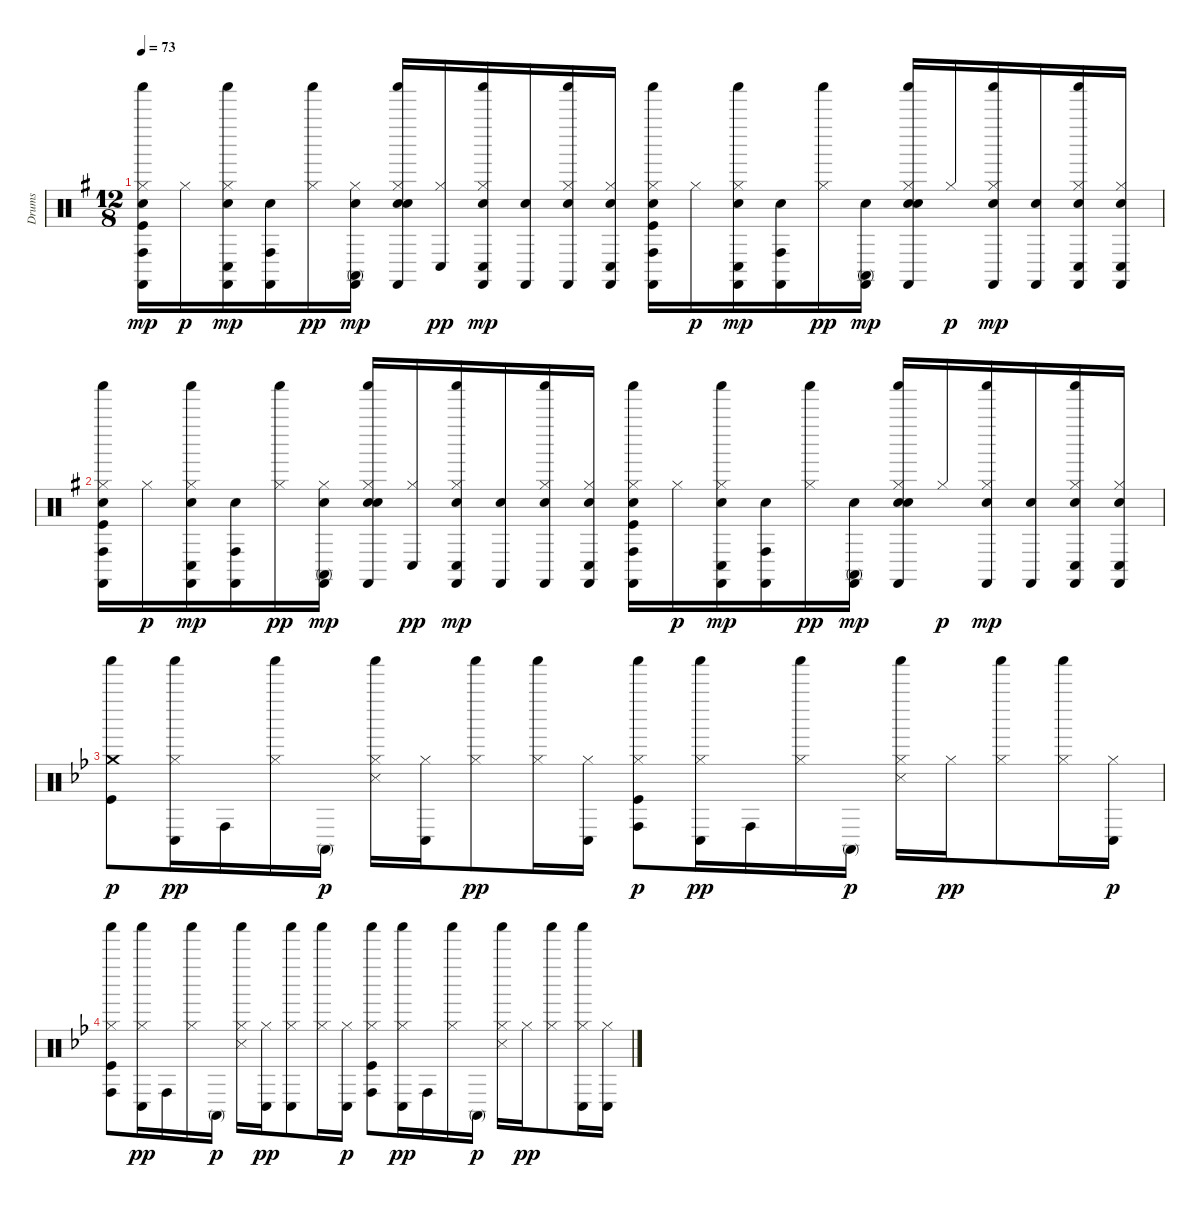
\track ("Drums" "Drums") {instrument percussion}
\staff {score}
\articulation defaults
\ts (12 8)
\tempo 73
\clef neutral
\ks g
("Kick (hit)" "Hand Clap (hit)" "Hi-Hat (closed)" "Conga high (hit)" "Shaker (hit)" "Castanets (hit)").16{dy mp} "Hi-Hat (closed)".16{dy p} ("Hand Clap (hit)" "Hi-Hat (closed)" "Conga low (hit)" "Shaker (hit)" "Castanets (hit)").16{dy mp} ("Hand Clap (hit)" "Conga high (hit)" "Castanets (hit)").16 ("Hi-Hat (closed)" "Shaker (hit)").16{dy pp} ("Hand Clap (hit)" "Hi-Hat (closed)" "Conga high (mute)" "Castanets (hit)").16{dy mp} ("Hand Clap (hit)" "Electric Snare (hit)" "Hi-Hat (closed)" "Shaker (hit)" "Castanets (hit)").16 ("Hi-Hat (closed)" "Conga low (hit)").16{dy pp} ("Hand Clap (hit)" "Hi-Hat (closed)" "Conga low (hit)" "Shaker (hit)" "Castanets (hit)").16{dy mp} ("Hand Clap (hit)" "Castanets (hit)").16 ("Hand Clap (hit)" "Hi-Hat (closed)" "Shaker (hit)" "Castanets (hit)").16 ("Hand Clap (hit)" "Hi-Hat (closed)" "Conga low (hit)" "Castanets (hit)").16 ("Kick (hit)" "Hand Clap (hit)" "Hi-Hat (closed)" "Conga high (hit)" "Shaker (hit)" "Castanets (hit)").16 "Hi-Hat (closed)".16{dy p} ("Hand Clap (hit)" "Hi-Hat (closed)" "Conga low (hit)" "Shaker (hit)" "Castanets (hit)").16{dy mp} ("Hand Clap (hit)" "Conga high (hit)" "Castanets (hit)").16 ("Hi-Hat (closed)" "Shaker (hit)").16{dy pp} ("Hand Clap (hit)" "Conga high (mute)" "Castanets (hit)").16{dy mp} ("Hand Clap (hit)" "Electric Snare (hit)" "Hi-Hat (closed)" "Shaker (hit)" "Castanets (hit)").16 "Hi-Hat (closed)".16{dy p} ("Hand Clap (hit)" "Hi-Hat (closed)" "Shaker (hit)" "Castanets (hit)").16{dy mp} ("Hand Clap (hit)" "Castanets (hit)").16 ("Hand Clap (hit)" "Hi-Hat (closed)" "Conga low (hit)" "Shaker (hit)" "Castanets (hit)").16 ("Hand Clap (hit)" "Hi-Hat (closed)" "Conga low (hit)" "Castanets (hit)").16 |
("Kick (hit)" "Hand Clap (hit)" "Hi-Hat (closed)" "Conga high (hit)" "Shaker (hit)" "Castanets (hit)").16 "Hi-Hat (closed)".16{dy p} ("Hand Clap (hit)" "Hi-Hat (closed)" "Conga low (hit)" "Shaker (hit)" "Castanets (hit)").16{dy mp} ("Hand Clap (hit)" "Conga high (hit)" "Castanets (hit)").16 ("Hi-Hat (closed)" "Shaker (hit)").16{dy pp} ("Hand Clap (hit)" "Hi-Hat (closed)" "Conga high (mute)" "Castanets (hit)").16{dy mp} ("Hand Clap (hit)" "Electric Snare (hit)" "Hi-Hat (closed)" "Shaker (hit)" "Castanets (hit)").16 ("Hi-Hat (closed)" "Conga low (hit)").16{dy pp} ("Hand Clap (hit)" "Hi-Hat (closed)" "Conga low (hit)" "Shaker (hit)" "Castanets (hit)").16{dy mp} ("Hand Clap (hit)" "Castanets (hit)").16 ("Hand Clap (hit)" "Hi-Hat (closed)" "Shaker (hit)" "Castanets (hit)").16 ("Hand Clap (hit)" "Hi-Hat (closed)" "Conga low (hit)" "Castanets (hit)").16 ("Kick (hit)" "Hand Clap (hit)" "Hi-Hat (closed)" "Conga high (hit)" "Shaker (hit)" "Castanets (hit)").16 "Hi-Hat (closed)".16{dy p} ("Hand Clap (hit)" "Hi-Hat (closed)" "Conga low (hit)" "Shaker (hit)" "Castanets (hit)").16{dy mp} ("Hand Clap (hit)" "Conga high (hit)" "Castanets (hit)").16 ("Hi-Hat (closed)" "Shaker (hit)").16{dy pp} ("Hand Clap (hit)" "Conga high (mute)" "Castanets (hit)").16{dy mp} ("Hand Clap (hit)" "Electric Snare (hit)" "Hi-Hat (closed)" "Shaker (hit)" "Castanets (hit)").16 "Hi-Hat (closed)".16{dy p} ("Hand Clap (hit)" "Hi-Hat (closed)" "Shaker (hit)" "Castanets (hit)").16{dy mp} ("Hand Clap (hit)" "Castanets (hit)").16 ("Hand Clap (hit)" "Hi-Hat (closed)" "Conga low (hit)" "Shaker (hit)" "Castanets (hit)").16 ("Hand Clap (hit)" "Hi-Hat (closed)" "Conga low (hit)" "Castanets (hit)").16 |
\ks bb
("Kick (hit)" "Crash medium (hit)" "Shaker (hit)").8{dy p} ("Hi-Hat (closed)" "Conga low (hit)" "Shaker (hit)").16{dy pp} "Conga high (hit)".16 ("Hi-Hat (closed)" "Shaker (hit)").16 "Conga high (mute)".16{dy p} ("Snare (side stick) 3" "Hi-Hat (closed)" "Shaker (hit)").16 ("Hi-Hat (closed)" "Conga low (hit)").16 ("Hi-Hat (closed)" "Shaker (hit)").8{dy pp} ("Hi-Hat (closed)" "Shaker (hit)").16 ("Hi-Hat (closed)" "Conga low (hit)").16 ("Kick (hit)" "Hi-Hat (closed)" "Conga high (hit)" "Shaker (hit)").8{dy p} ("Hi-Hat (closed)" "Conga low (hit)" "Shaker (hit)").16{dy pp} "Conga high (hit)".16 ("Hi-Hat (closed)" "Shaker (hit)").16 "Conga high (mute)".16{dy p} ("Snare (side stick) 3" "Hi-Hat (closed)" "Shaker (hit)").16 "Hi-Hat (closed)".16{dy pp} ("Hi-Hat (closed)" "Shaker (hit)").8 ("Hi-Hat (closed)" "Shaker (hit)").16 ("Hi-Hat (closed)" "Conga low (hit)").16{dy p} |
("Kick (hit)" "Hi-Hat (closed)" "Conga high (hit)" "Shaker (hit)").8 ("Hi-Hat (closed)" "Conga low (hit)" "Shaker (hit)").16{dy pp} "Conga high (hit)".16 ("Hi-Hat (closed)" "Shaker (hit)").16 "Conga high (mute)".16{dy p} ("Snare (side stick) 3" "Hi-Hat (closed)" "Shaker (hit)").16 ("Hi-Hat (closed)" "Conga low (hit)").16{dy pp} ("Hi-Hat (closed)" "Conga low (hit)" "Shaker (hit)").8 ("Hi-Hat (closed)" "Shaker (hit)").16 ("Hi-Hat (closed)" "Conga low (hit)").16{dy p} ("Kick (hit)" "Hi-Hat (closed)" "Conga high (hit)" "Shaker (hit)").8 ("Hi-Hat (closed)" "Conga low (hit)" "Shaker (hit)").16{dy pp} "Conga high (hit)".16 ("Hi-Hat (closed)" "Shaker (hit)").16 "Conga high (mute)".16{dy p} ("Snare (side stick) 3" "Hi-Hat (closed)" "Shaker (hit)").16 "Hi-Hat (closed)".16{dy pp} ("Hi-Hat (closed)" "Shaker (hit)").8 ("Hi-Hat (closed)" "Conga low (hit)" "Shaker (hit)").16 ("Hi-Hat (closed)" "Conga low (hit)").16
